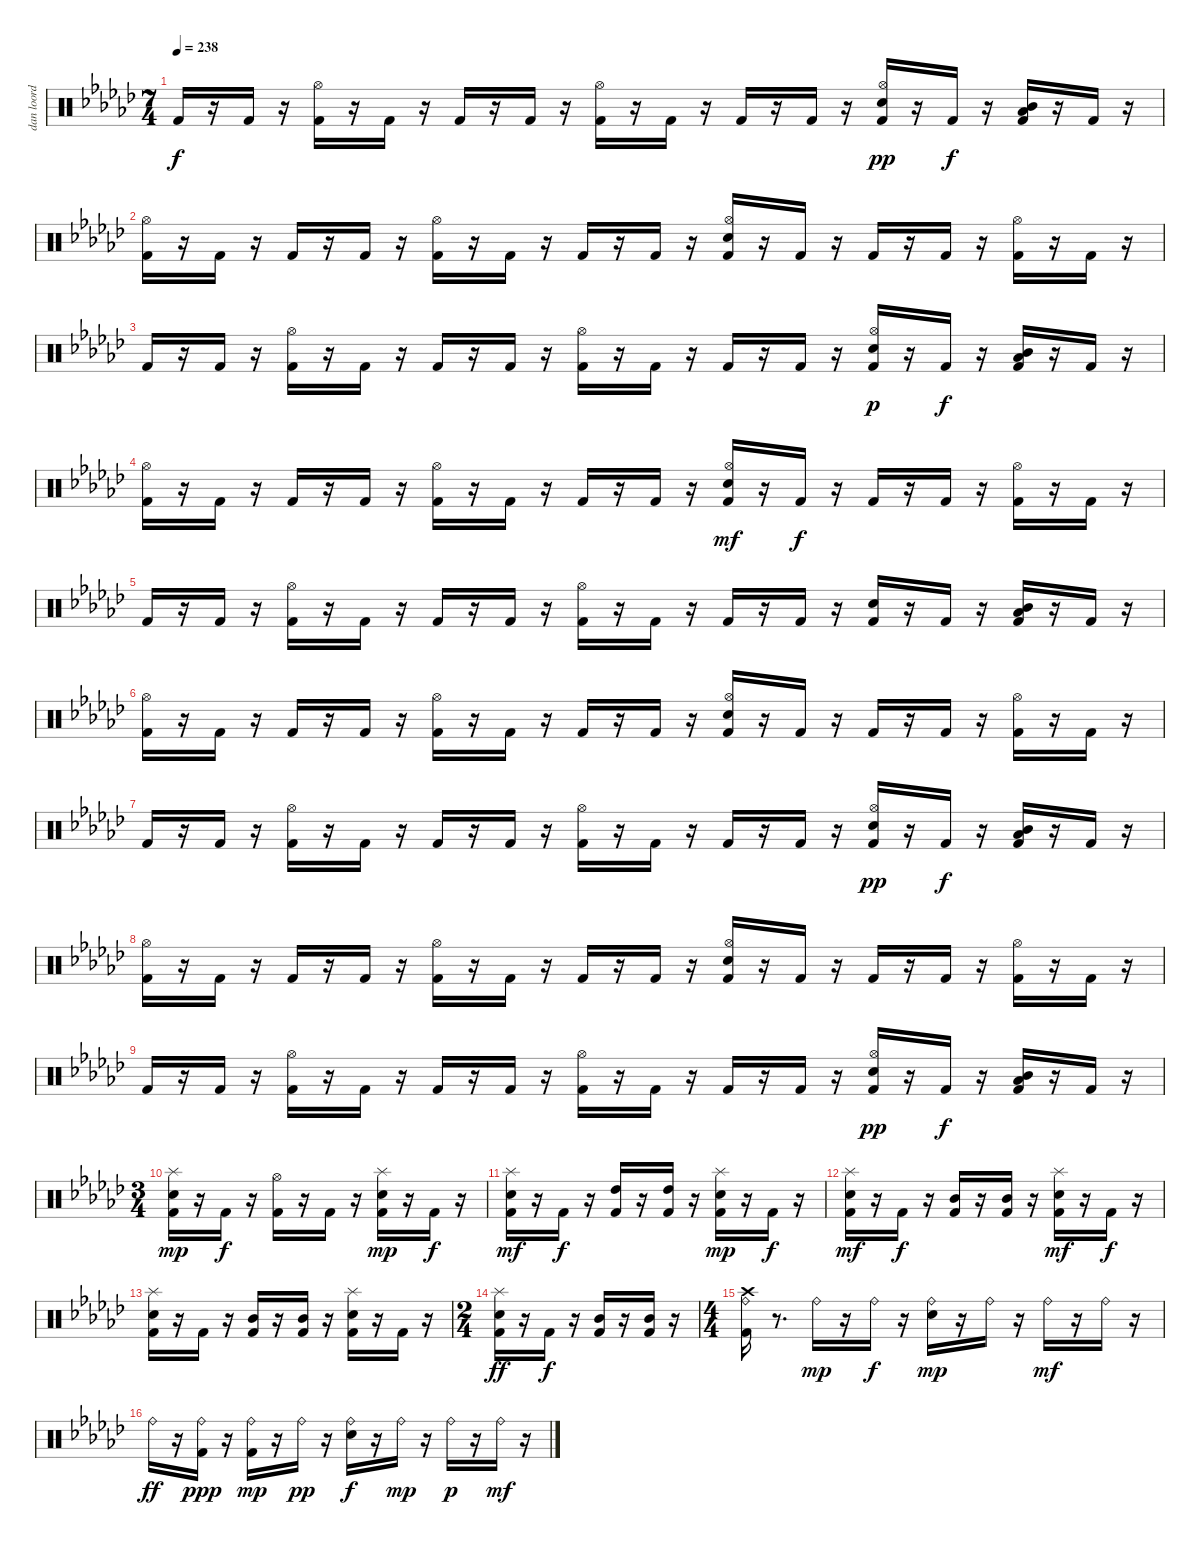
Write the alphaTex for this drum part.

\track ("dan loord foord" "dan loord ") {instrument percussion}
\staff {score}
\articulation defaults
\ts (7 4)
\tempo 238
\clef neutral
\ks gb "Kick (hit) 2".16{dy f}
r.16 "Kick (hit) 2".16 r.16 ("Kick (hit) 2" "Hi-Hat (open)").16 r.16 "Kick (hit) 2".16 r.16 "Kick (hit) 2".16 r.16 "Kick (hit) 2".16 r.16 ("Kick (hit) 2" "Hi-Hat (open)").16 r.16 "Kick (hit) 2".16 r.16 "Kick (hit) 2".16 r.16 "Kick (hit) 2".16 r.16 ("Kick (hit) 2" "Snare (hit) 2" "Hi-Hat (open)").16{dy pp} r.16 "Kick (hit) 2".16{dy f} r.16 ("Kick (hit) 2" "Low Floor Tom (hit)" "Mid Tom (hit)").16 r.16 "Kick (hit) 2".16 r.16 |
("Kick (hit) 2" "Hi-Hat (open)").16 r.16 "Kick (hit) 2".16 r.16 "Kick (hit) 2".16 r.16 "Kick (hit) 2".16 r.16 ("Kick (hit) 2" "Hi-Hat (open)").16 r.16 "Kick (hit) 2".16 r.16 "Kick (hit) 2".16 r.16 "Kick (hit) 2".16 r.16 ("Kick (hit) 2" "Snare (hit) 2" "Hi-Hat (open)").16 r.16 "Kick (hit) 2".16 r.16 "Kick (hit) 2".16 r.16 "Kick (hit) 2".16 r.16 ("Kick (hit) 2" "Hi-Hat (open)").16 r.16 "Kick (hit) 2".16 r.16 |
"Kick (hit) 2".16 r.16 "Kick (hit) 2".16 r.16 ("Kick (hit) 2" "Hi-Hat (open)").16 r.16 "Kick (hit) 2".16 r.16 "Kick (hit) 2".16 r.16 "Kick (hit) 2".16 r.16 ("Kick (hit) 2" "Hi-Hat (open)").16 r.16 "Kick (hit) 2".16 r.16 "Kick (hit) 2".16 r.16 "Kick (hit) 2".16 r.16 ("Kick (hit) 2" "Snare (hit) 2" "Hi-Hat (open)").16{dy p} r.16 "Kick (hit) 2".16{dy f} r.16 ("Kick (hit) 2" "Low Floor Tom (hit)" "Mid Tom (hit)").16 r.16 "Kick (hit) 2".16 r.16 |
("Kick (hit) 2" "Hi-Hat (open)").16 r.16 "Kick (hit) 2".16 r.16 "Kick (hit) 2".16 r.16 "Kick (hit) 2".16 r.16 ("Kick (hit) 2" "Hi-Hat (open)").16 r.16 "Kick (hit) 2".16 r.16 "Kick (hit) 2".16 r.16 "Kick (hit) 2".16 r.16 ("Kick (hit) 2" "Snare (hit) 2" "Hi-Hat (open)").16{dy mf} r.16 "Kick (hit) 2".16{dy f} r.16 "Kick (hit) 2".16 r.16 "Kick (hit) 2".16 r.16 ("Kick (hit) 2" "Hi-Hat (open)").16 r.16 "Kick (hit) 2".16 r.16 |
"Kick (hit) 2".16 r.16 "Kick (hit) 2".16 r.16 ("Kick (hit) 2" "Hi-Hat (open)").16 r.16 "Kick (hit) 2".16 r.16 "Kick (hit) 2".16 r.16 "Kick (hit) 2".16 r.16 ("Kick (hit) 2" "Hi-Hat (open)").16 r.16 "Kick (hit) 2".16 r.16 "Kick (hit) 2".16 r.16 "Kick (hit) 2".16 r.16 ("Kick (hit) 2" "Snare (hit) 2").16 r.16 "Kick (hit) 2".16 r.16 ("Kick (hit) 2" "Low Floor Tom (hit)" "Mid Tom (hit)").16 r.16 "Kick (hit) 2".16 r.16 |
("Kick (hit) 2" "Hi-Hat (open)").16 r.16 "Kick (hit) 2".16 r.16 "Kick (hit) 2".16 r.16 "Kick (hit) 2".16 r.16 ("Kick (hit) 2" "Hi-Hat (open)").16 r.16 "Kick (hit) 2".16 r.16 "Kick (hit) 2".16 r.16 "Kick (hit) 2".16 r.16 ("Kick (hit) 2" "Snare (hit) 2" "Hi-Hat (open)").16 r.16 "Kick (hit) 2".16 r.16 "Kick (hit) 2".16 r.16 "Kick (hit) 2".16 r.16 ("Kick (hit) 2" "Hi-Hat (open)").16 r.16 "Kick (hit) 2".16 r.16 |
"Kick (hit) 2".16 r.16 "Kick (hit) 2".16 r.16 ("Kick (hit) 2" "Hi-Hat (open)").16 r.16 "Kick (hit) 2".16 r.16 "Kick (hit) 2".16 r.16 "Kick (hit) 2".16 r.16 ("Kick (hit) 2" "Hi-Hat (open)").16 r.16 "Kick (hit) 2".16 r.16 "Kick (hit) 2".16 r.16 "Kick (hit) 2".16 r.16 ("Kick (hit) 2" "Snare (hit) 2" "Hi-Hat (open)").16{dy pp} r.16 "Kick (hit) 2".16{dy f} r.16 ("Kick (hit) 2" "Low Floor Tom (hit)" "Mid Tom (hit)").16 r.16 "Kick (hit) 2".16 r.16 |
("Kick (hit) 2" "Hi-Hat (open)").16 r.16 "Kick (hit) 2".16 r.16 "Kick (hit) 2".16 r.16 "Kick (hit) 2".16 r.16 ("Kick (hit) 2" "Hi-Hat (open)").16 r.16 "Kick (hit) 2".16 r.16 "Kick (hit) 2".16 r.16 "Kick (hit) 2".16 r.16 ("Kick (hit) 2" "Snare (hit) 2" "Hi-Hat (open)").16 r.16 "Kick (hit) 2".16 r.16 "Kick (hit) 2".16 r.16 "Kick (hit) 2".16 r.16 ("Kick (hit) 2" "Hi-Hat (open)").16 r.16 "Kick (hit) 2".16 r.16 |
"Kick (hit) 2".16 r.16 "Kick (hit) 2".16 r.16 ("Kick (hit) 2" "Hi-Hat (open)").16 r.16 "Kick (hit) 2".16 r.16 "Kick (hit) 2".16 r.16 "Kick (hit) 2".16 r.16 ("Kick (hit) 2" "Hi-Hat (open)").16 r.16 "Kick (hit) 2".16 r.16 "Kick (hit) 2".16 r.16 "Kick (hit) 2".16 r.16 ("Kick (hit) 2" "Snare (hit) 2" "Hi-Hat (open)").16{dy pp} r.16 "Kick (hit) 2".16{dy f} r.16 ("Kick (hit) 2" "Low Floor Tom (hit)" "Mid Tom (hit)").16 r.16 "Kick (hit) 2".16 r.16 |
\ts (3 4)
("Kick (hit) 2" "Snare (hit) 2" "Splash (hit)").16{dy mp} r.16 "Kick (hit) 2".16{dy f} r.16 ("Kick (hit) 2" "Hi-Hat (open)").16 r.16 "Kick (hit) 2".16 r.16 ("Kick (hit) 2" "Snare (hit) 2" "Splash (hit)").16{dy mp} r.16 "Kick (hit) 2".16{dy f} r.16 |
("Kick (hit) 2" "Snare (hit) 2" "Splash (hit)").16{dy mf} r.16 "Kick (hit) 2".16{dy f} r.16 ("Kick (hit) 2" "High Tom (hit)").16 r.16 ("Kick (hit) 2" "High Tom (hit)").16 r.16 ("Kick (hit) 2" "Snare (hit) 2" "Splash (hit)").16{dy mp} r.16 "Kick (hit) 2".16{dy f} r.16 |
("Kick (hit) 2" "Snare (hit) 2" "Splash (hit)").16{dy mf} r.16 "Kick (hit) 2".16{dy f} r.16 ("Kick (hit) 2" "Mid Tom (hit)").16 r.16 ("Kick (hit) 2" "Mid Tom (hit)").16 r.16 ("Kick (hit) 2" "Snare (hit) 2" "Splash (hit)").16{dy mf} r.16 "Kick (hit) 2".16{dy f} r.16 |
("Kick (hit) 2" "Snare (hit) 2" "Splash (hit)").16 r.16 "Kick (hit) 2".16 r.16 ("Kick (hit) 2" "Mid Tom (hit)").16 r.16 ("Kick (hit) 2" "Mid Tom (hit)").16 r.16 ("Kick (hit) 2" "Snare (hit) 2" "Splash (hit)").16 r.16 "Kick (hit) 2".16 r.16 |
\ts (2 4)
("Kick (hit) 2" "Snare (hit) 2" "Splash (hit)").16{dy ff} r.16 "Kick (hit) 2".16{dy f} r.16 ("Kick (hit) 2" "Mid Tom (hit)").16 r.16 ("Kick (hit) 2" "Mid Tom (hit)").16 r.16 |
\ts (4 4)
("Kick (hit) 2" "Crash high (hit)" "Ride (bell)").16 r.8{d} "Ride (bell)".16{dy mp} r.16 "Ride (bell)".16{dy f} r.16 ("Snare (hit) 2" "Ride (bell)").16{dy mp} r.16 "Ride (bell)".16 r.16 "Ride (bell)".16{dy mf} r.16 "Ride (bell)".16 r.16 |
"Ride (bell)".16{dy ff} r.16 ("Kick (hit) 2" "Ride (bell)").16{dy ppp} r.16 ("Kick (hit) 2" "Ride (bell)").16{dy mp} r.16 "Ride (bell)".16{dy pp} r.16 ("Snare (hit) 2" "Ride (bell)").16{dy f} r.16 "Ride (bell)".16{dy mp} r.16 "Ride (bell)".16{dy p} r.16 "Ride (bell)".16{dy mf} r.16
